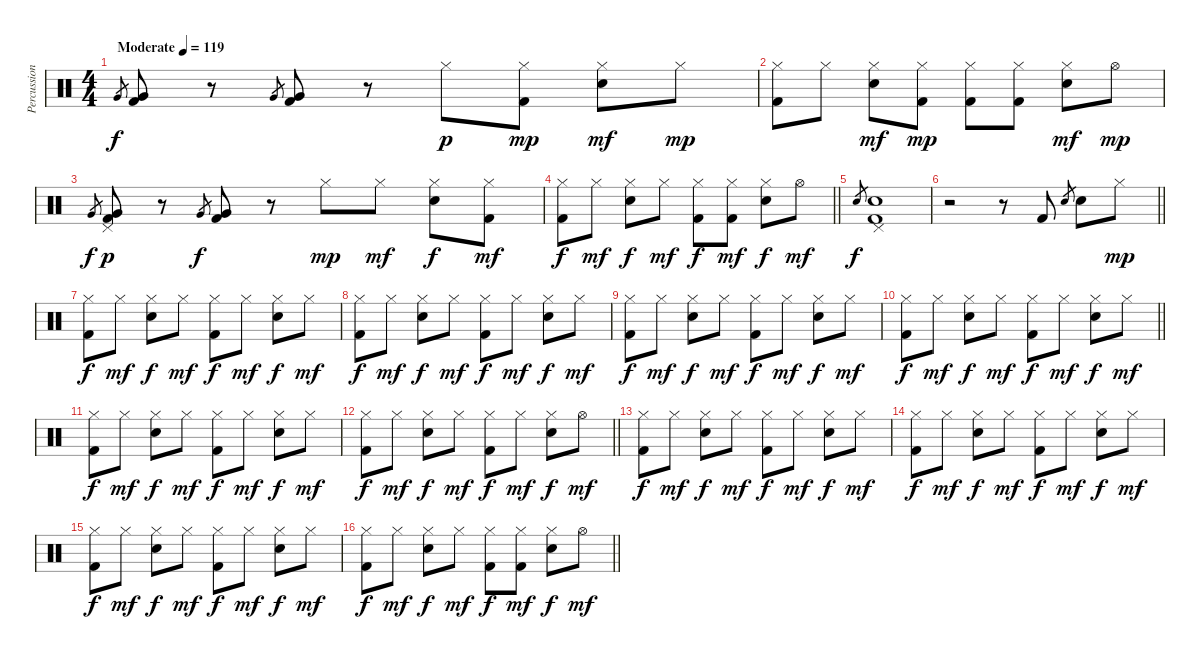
\track ("Percussion" "Percussion") {instrument percussion}
\staff {score}
\articulation defaults
\ts (4 4)
\tempo (119 "Moderate")
\clef neutral
\ks c "Very Low Tom (hit)".8{gr dy f}
("Very Low Tom (hit)" "Kick (hit) 2").8 r.8 "Very Low Tom (hit)".8{gr} ("Very Low Tom (hit)" "Kick (hit) 2").8 r.8 "Hi-Hat (closed)".8{dy p} ("Hi-Hat (closed)" "Kick (hit) 2").8{dy mp} ("Hi-Hat (closed)" "Hand Clap (hit)").8{dy mf} "Hi-Hat (closed)".8{dy mp} |
("Hi-Hat (closed)" "Kick (hit) 2").8 "Hi-Hat (closed)".8 ("Hi-Hat (closed)" "Hand Clap (hit)").8{dy mf} ("Hi-Hat (closed)" "Kick (hit) 2").8{dy mp} ("Hi-Hat (closed)" "Kick (hit) 2").8 ("Hi-Hat (closed)" "Kick (hit) 2").8 ("Hi-Hat (closed)" "Hand Clap (hit)").8{dy mf} "Hi-Hat (open)".8{dy mp} |
"Very Low Tom (hit)".8{gr dy f} ("Pedal Hi-Hat (hit)" "Very Low Tom (hit)" "Kick (hit) 2").8{dy p} r.8 "Very Low Tom (hit)".8{gr dy f} ("Very Low Tom (hit)" "Kick (hit) 2").8 r.8 "Hi-Hat (closed)".8{dy mp} "Hi-Hat (closed)".8{dy mf} ("Hi-Hat (closed)" "Snare (hit) 2").8{dy f} ("Hi-Hat (closed)" "Kick (hit) 2").8{dy mf} |
\barLineRight lightlight
("Hi-Hat (closed)" "Kick (hit) 2").8{dy f} "Hi-Hat (closed)".8{dy mf} ("Hi-Hat (closed)" "Snare (hit) 2").8{dy f} "Hi-Hat (closed)".8{dy mf} ("Hi-Hat (closed)" "Kick (hit) 2").8{dy f} ("Hi-Hat (closed)" "Kick (hit) 2").8{dy mf} ("Hi-Hat (closed)" "Snare (hit) 2").8{dy f} "Hi-Hat (open)".8{dy mf} |
"Snare (hit) 2".8{gr dy f} ("Pedal Hi-Hat (hit)" "Snare (hit) 2" "Kick (hit) 2").1 |
\barLineRight lightlight
r.2 r.8 "Kick (hit) 2".8 "Snare (hit) 2".8{gr} "Snare (hit) 2".8 "Hi-Hat (closed)".8{dy mp} |
("Hi-Hat (closed)" "Kick (hit) 2").8{dy f} "Hi-Hat (closed)".8{dy mf} ("Hi-Hat (closed)" "Snare (hit) 2").8{dy f} "Hi-Hat (closed)".8{dy mf} ("Hi-Hat (closed)" "Kick (hit) 2").8{dy f} "Hi-Hat (closed)".8{dy mf} ("Hi-Hat (closed)" "Snare (hit) 2").8{dy f} "Hi-Hat (closed)".8{dy mf} |
("Hi-Hat (closed)" "Kick (hit) 2").8{dy f} "Hi-Hat (closed)".8{dy mf} ("Hi-Hat (closed)" "Snare (hit) 2").8{dy f} "Hi-Hat (closed)".8{dy mf} ("Hi-Hat (closed)" "Kick (hit) 2").8{dy f} "Hi-Hat (closed)".8{dy mf} ("Hi-Hat (closed)" "Snare (hit) 2").8{dy f} "Hi-Hat (closed)".8{dy mf} |
("Hi-Hat (closed)" "Kick (hit) 2").8{dy f} "Hi-Hat (closed)".8{dy mf} ("Hi-Hat (closed)" "Snare (hit) 2").8{dy f} "Hi-Hat (closed)".8{dy mf} ("Hi-Hat (closed)" "Kick (hit) 2").8{dy f} "Hi-Hat (closed)".8{dy mf} ("Hi-Hat (closed)" "Snare (hit) 2").8{dy f} "Hi-Hat (closed)".8{dy mf} |
\barLineRight lightlight
("Hi-Hat (closed)" "Kick (hit) 2").8{dy f} "Hi-Hat (closed)".8{dy mf} ("Hi-Hat (closed)" "Snare (hit) 2").8{dy f} "Hi-Hat (closed)".8{dy mf} ("Hi-Hat (closed)" "Kick (hit) 2").8{dy f} "Hi-Hat (closed)".8{dy mf} ("Hi-Hat (closed)" "Snare (hit) 2").8{dy f} "Hi-Hat (closed)".8{dy mf} |
("Hi-Hat (closed)" "Kick (hit) 2").8{dy f} "Hi-Hat (closed)".8{dy mf} ("Hi-Hat (closed)" "Snare (hit) 2").8{dy f} "Hi-Hat (closed)".8{dy mf} ("Hi-Hat (closed)" "Kick (hit) 2").8{dy f} "Hi-Hat (closed)".8{dy mf} ("Hi-Hat (closed)" "Snare (hit) 2").8{dy f} "Hi-Hat (closed)".8{dy mf} |
\barLineRight lightlight
("Hi-Hat (closed)" "Kick (hit) 2").8{dy f} "Hi-Hat (closed)".8{dy mf} ("Hi-Hat (closed)" "Snare (hit) 2").8{dy f} "Hi-Hat (closed)".8{dy mf} ("Hi-Hat (closed)" "Kick (hit) 2").8{dy f} "Hi-Hat (closed)".8{dy mf} ("Hi-Hat (closed)" "Snare (hit) 2").8{dy f} "Hi-Hat (open)".8{dy mf} |
("Hi-Hat (closed)" "Kick (hit) 2").8{dy f} "Hi-Hat (closed)".8{dy mf} ("Hi-Hat (closed)" "Snare (hit) 2").8{dy f} "Hi-Hat (closed)".8{dy mf} ("Hi-Hat (closed)" "Kick (hit) 2").8{dy f} "Hi-Hat (closed)".8{dy mf} ("Hi-Hat (closed)" "Snare (hit) 2").8{dy f} "Hi-Hat (closed)".8{dy mf} |
("Hi-Hat (closed)" "Kick (hit) 2").8{dy f} "Hi-Hat (closed)".8{dy mf} ("Hi-Hat (closed)" "Snare (hit) 2").8{dy f} "Hi-Hat (closed)".8{dy mf} ("Hi-Hat (closed)" "Kick (hit) 2").8{dy f} "Hi-Hat (closed)".8{dy mf} ("Hi-Hat (closed)" "Snare (hit) 2").8{dy f} "Hi-Hat (closed)".8{dy mf} |
("Hi-Hat (closed)" "Kick (hit) 2").8{dy f} "Hi-Hat (closed)".8{dy mf} ("Hi-Hat (closed)" "Snare (hit) 2").8{dy f} "Hi-Hat (closed)".8{dy mf} ("Hi-Hat (closed)" "Kick (hit) 2").8{dy f} "Hi-Hat (closed)".8{dy mf} ("Hi-Hat (closed)" "Snare (hit) 2").8{dy f} "Hi-Hat (closed)".8{dy mf} |
\barLineRight lightlight
("Hi-Hat (closed)" "Kick (hit) 2").8{dy f} "Hi-Hat (closed)".8{dy mf} ("Hi-Hat (closed)" "Snare (hit) 2").8{dy f} "Hi-Hat (closed)".8{dy mf} ("Hi-Hat (closed)" "Kick (hit) 2").8{dy f} ("Hi-Hat (closed)" "Kick (hit) 2").8{dy mf} ("Hi-Hat (closed)" "Snare (hit) 2").8{dy f} "Hi-Hat (open)".8{dy mf}
